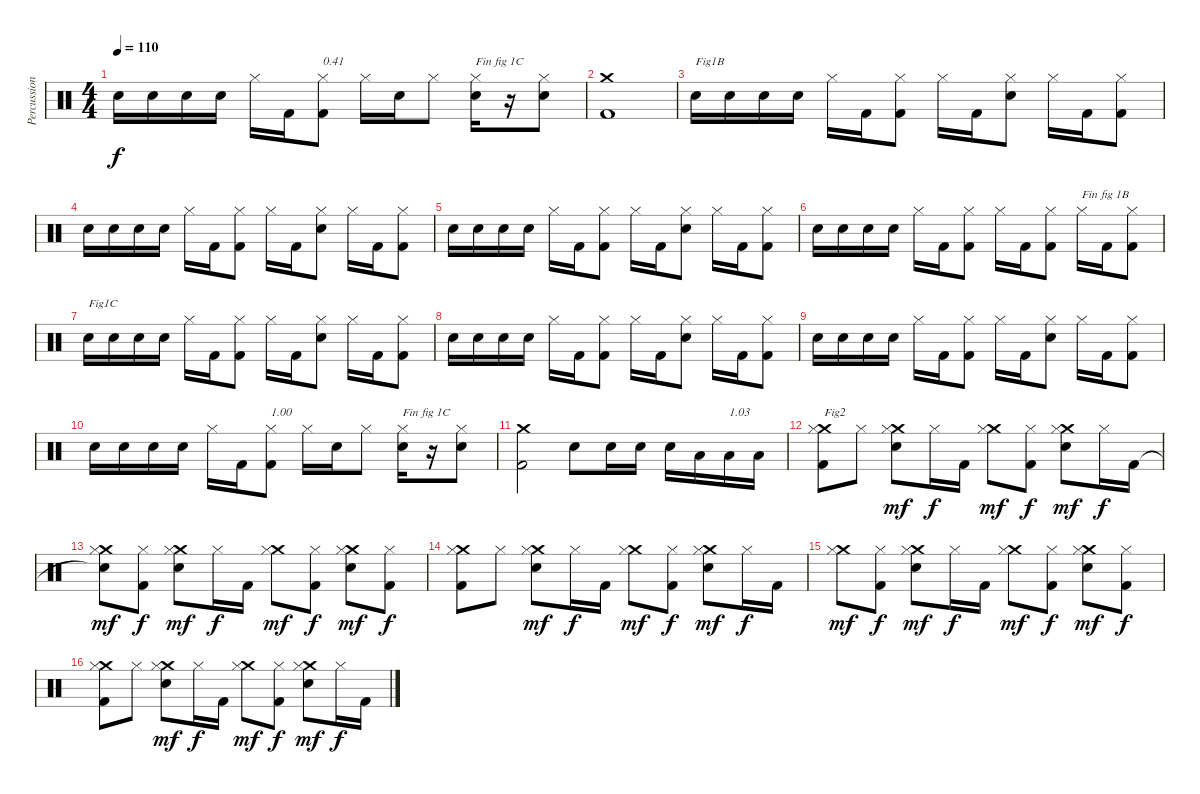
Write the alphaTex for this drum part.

\track ("Percussions" "Percussion") {instrument percussion}
\staff {score}
\articulation defaults
\ts (4 4)
\tempo 110
\clef neutral
\ks c "Electric Snare (hit)".16{dy f} "Electric Snare (hit)".16 "Electric Snare (hit)".16 "Electric Snare (hit)".16 "Hi-Hat (closed)".16 "Kick (hit) 2".16
("Kick (hit) 2" "Hi-Hat (closed)").8{txt "0.41"} "Hi-Hat (closed)".16 "Electric Snare (hit)".16 "Hi-Hat (closed)".8 ("Electric Snare (hit)" "Hi-Hat (closed)").16{txt "Fin fig 1C"} r.16 ("Electric Snare (hit)" "Hi-Hat (closed)").8 |
("Kick (hit) 2" "Crash medium (hit)").1 |
"Electric Snare (hit)".16{txt "Fig1B"} "Electric Snare (hit)".16 "Electric Snare (hit)".16 "Electric Snare (hit)".16 "Hi-Hat (closed)".16 "Kick (hit) 2".16 ("Kick (hit) 2" "Hi-Hat (closed)").8 "Hi-Hat (closed)".16 "Kick (hit) 2".16 ("Electric Snare (hit)" "Hi-Hat (closed)").8 "Hi-Hat (closed)".16 "Kick (hit) 2".16 ("Kick (hit) 2" "Hi-Hat (closed)").8 |
"Electric Snare (hit)".16 "Electric Snare (hit)".16 "Electric Snare (hit)".16 "Electric Snare (hit)".16 "Hi-Hat (closed)".16 "Kick (hit) 2".16 ("Kick (hit) 2" "Hi-Hat (closed)").8 "Hi-Hat (closed)".16 "Kick (hit) 2".16 ("Electric Snare (hit)" "Hi-Hat (closed)").8 "Hi-Hat (closed)".16 "Kick (hit) 2".16 ("Kick (hit) 2" "Hi-Hat (closed)").8 |
"Electric Snare (hit)".16 "Electric Snare (hit)".16 "Electric Snare (hit)".16 "Electric Snare (hit)".16 "Hi-Hat (closed)".16 "Kick (hit) 2".16 ("Kick (hit) 2" "Hi-Hat (closed)").8 "Hi-Hat (closed)".16 "Kick (hit) 2".16 ("Electric Snare (hit)" "Hi-Hat (closed)").8 "Hi-Hat (closed)".16 "Kick (hit) 2".16 ("Kick (hit) 2" "Hi-Hat (closed)").8 |
"Electric Snare (hit)".16 "Electric Snare (hit)".16 "Electric Snare (hit)".16 "Electric Snare (hit)".16 "Hi-Hat (closed)".16 "Kick (hit) 2".16 ("Kick (hit) 2" "Hi-Hat (closed)").8 "Hi-Hat (closed)".16 "Kick (hit) 2".16 ("Kick (hit) 2" "Hi-Hat (closed)").8 "Hi-Hat (closed)".16{txt "Fin fig 1B"} "Kick (hit) 2".16 ("Kick (hit) 2" "Hi-Hat (closed)").8 |
"Electric Snare (hit)".16{txt "Fig1C"} "Electric Snare (hit)".16 "Electric Snare (hit)".16 "Electric Snare (hit)".16 "Hi-Hat (closed)".16 "Kick (hit) 2".16 ("Kick (hit) 2" "Hi-Hat (closed)").8 "Hi-Hat (closed)".16 "Kick (hit) 2".16 ("Electric Snare (hit)" "Hi-Hat (closed)").8 "Hi-Hat (closed)".16 "Kick (hit) 2".16 ("Kick (hit) 2" "Hi-Hat (closed)").8 |
"Electric Snare (hit)".16 "Electric Snare (hit)".16 "Electric Snare (hit)".16 "Electric Snare (hit)".16 "Hi-Hat (closed)".16 "Kick (hit) 2".16 ("Kick (hit) 2" "Hi-Hat (closed)").8 "Hi-Hat (closed)".16 "Kick (hit) 2".16 ("Electric Snare (hit)" "Hi-Hat (closed)").8 "Hi-Hat (closed)".16 "Kick (hit) 2".16 ("Kick (hit) 2" "Hi-Hat (closed)").8 |
"Electric Snare (hit)".16 "Electric Snare (hit)".16 "Electric Snare (hit)".16 "Electric Snare (hit)".16 "Hi-Hat (closed)".16 "Kick (hit) 2".16 ("Kick (hit) 2" "Hi-Hat (closed)").8 "Hi-Hat (closed)".16 "Kick (hit) 2".16 ("Electric Snare (hit)" "Hi-Hat (closed)").8 "Hi-Hat (closed)".16 "Kick (hit) 2".16 ("Kick (hit) 2" "Hi-Hat (closed)").8 |
"Electric Snare (hit)".16 "Electric Snare (hit)".16 "Electric Snare (hit)".16 "Electric Snare (hit)".16 "Hi-Hat (closed)".16 "Kick (hit) 2".16 ("Kick (hit) 2" "Hi-Hat (closed)").8{txt "1.00"} "Hi-Hat (closed)".16 "Electric Snare (hit)".16 "Hi-Hat (closed)".8 ("Electric Snare (hit)" "Hi-Hat (closed)").16{txt "Fin fig 1C"} r.16 ("Electric Snare (hit)" "Hi-Hat (closed)").8 |
("Kick (hit) 2" "Crash medium (hit)").2 "Electric Snare (hit)".8 "Electric Snare (hit)".16 "Electric Snare (hit)".16 "Electric Snare (hit)".16 "Low Floor Tom (hit)".16 "Low Floor Tom (hit)".16{txt "1.03"} "Low Floor Tom (hit)".16 |
("Kick (hit) 2" "Crash medium (hit)" "Hi-Hat (closed)").8{txt "Fig2"} "Hi-Hat (closed)".8 ("Electric Snare (hit)" "Crash medium (hit)" "Hi-Hat (closed)").8{dy mf} "Hi-Hat (closed)".16{dy f} "Kick (hit) 2".16 ("Crash medium (hit)" "Hi-Hat (closed)").8{dy mf} ("Kick (hit) 2" "Hi-Hat (closed)").8{dy f} ("Electric Snare (hit)" "Crash medium (hit)" "Hi-Hat (closed)").8{dy mf} "Hi-Hat (closed)".16{dy f} "Kick (hit) 2".16 |
("Snare (hit)"{t} "Crash medium (hit)" "Hi-Hat (closed)").8{dy mf} ("Kick (hit) 2" "Hi-Hat (closed)").8{dy f} ("Electric Snare (hit)" "Crash medium (hit)" "Hi-Hat (closed)").8{dy mf} "Hi-Hat (closed)".16{dy f} "Kick (hit) 2".16 ("Crash medium (hit)" "Hi-Hat (closed)").8{dy mf} ("Kick (hit) 2" "Hi-Hat (closed)").8{dy f} ("Electric Snare (hit)" "Crash medium (hit)" "Hi-Hat (closed)").8{dy mf} ("Kick (hit) 2" "Hi-Hat (closed)").8{dy f} |
("Kick (hit) 2" "Crash medium (hit)" "Hi-Hat (closed)").8 "Hi-Hat (closed)".8 ("Electric Snare (hit)" "Crash medium (hit)" "Hi-Hat (closed)").8{dy mf} "Hi-Hat (closed)".16{dy f} "Kick (hit) 2".16 ("Crash medium (hit)" "Hi-Hat (closed)").8{dy mf} ("Kick (hit) 2" "Hi-Hat (closed)").8{dy f} ("Electric Snare (hit)" "Crash medium (hit)" "Hi-Hat (closed)").8{dy mf} "Hi-Hat (closed)".16{dy f} "Kick (hit) 2".16 |
("Crash medium (hit)" "Hi-Hat (closed)").8{dy mf} ("Kick (hit) 2" "Hi-Hat (closed)").8{dy f} ("Electric Snare (hit)" "Crash medium (hit)" "Hi-Hat (closed)").8{dy mf} "Hi-Hat (closed)".16{dy f} "Kick (hit) 2".16 ("Crash medium (hit)" "Hi-Hat (closed)").8{dy mf} ("Kick (hit) 2" "Hi-Hat (closed)").8{dy f} ("Electric Snare (hit)" "Crash medium (hit)" "Hi-Hat (closed)").8{dy mf} ("Kick (hit) 2" "Hi-Hat (closed)").8{dy f} |
("Kick (hit) 2" "Crash medium (hit)" "Hi-Hat (closed)").8 "Hi-Hat (closed)".8 ("Electric Snare (hit)" "Crash medium (hit)" "Hi-Hat (closed)").8{dy mf} "Hi-Hat (closed)".16{dy f} "Kick (hit) 2".16 ("Crash medium (hit)" "Hi-Hat (closed)").8{dy mf} ("Kick (hit) 2" "Hi-Hat (closed)").8{dy f} ("Electric Snare (hit)" "Crash medium (hit)" "Hi-Hat (closed)").8{dy mf} "Hi-Hat (closed)".16{dy f} "Kick (hit) 2".16
